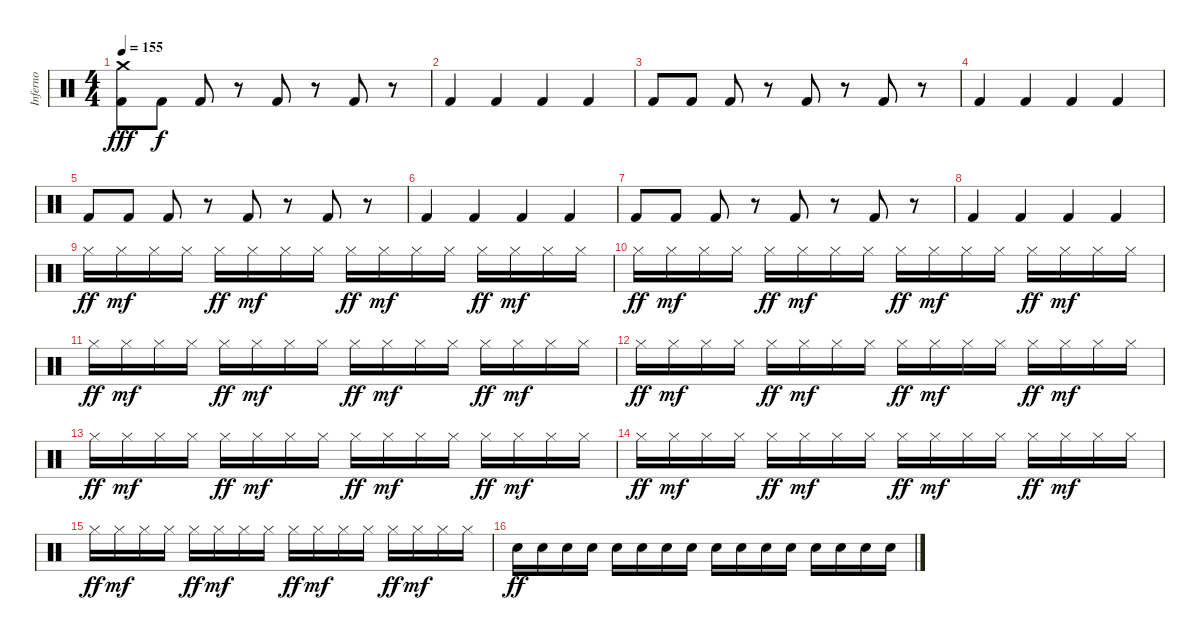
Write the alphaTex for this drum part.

\track ("Inferno" "Inferno") {instrument percussion}
\staff {score}
\articulation defaults
\ts (4 4)
\tempo 155
\clef neutral
\ks c
("Crash medium (hit)" "Kick (hit) 2").8{dy fff} "Kick (hit) 2".8{dy f} "Kick (hit) 2".8 r.8 "Kick (hit) 2".8 r.8 "Kick (hit) 2".8 r.8 |
"Kick (hit) 2".4 "Kick (hit) 2".4 "Kick (hit) 2".4 "Kick (hit) 2".4 |
"Kick (hit) 2".8 "Kick (hit) 2".8 "Kick (hit) 2".8 r.8 "Kick (hit) 2".8 r.8 "Kick (hit) 2".8 r.8 |
"Kick (hit) 2".4 "Kick (hit) 2".4 "Kick (hit) 2".4 "Kick (hit) 2".4 |
"Kick (hit) 2".8 "Kick (hit) 2".8 "Kick (hit) 2".8 r.8 "Kick (hit) 2".8 r.8 "Kick (hit) 2".8 r.8 |
"Kick (hit) 2".4 "Kick (hit) 2".4 "Kick (hit) 2".4 "Kick (hit) 2".4 |
"Kick (hit) 2".8 "Kick (hit) 2".8 "Kick (hit) 2".8 r.8 "Kick (hit) 2".8 r.8 "Kick (hit) 2".8 r.8 |
"Kick (hit) 2".4 "Kick (hit) 2".4 "Kick (hit) 2".4 "Kick (hit) 2".4 |
"Hi-Hat (closed)".16{dy ff} "Hi-Hat (closed)".16{dy mf} "Hi-Hat (closed)".16 "Hi-Hat (closed)".16 "Hi-Hat (closed)".16{dy ff} "Hi-Hat (closed)".16{dy mf} "Hi-Hat (closed)".16 "Hi-Hat (closed)".16 "Hi-Hat (closed)".16{dy ff} "Hi-Hat (closed)".16{dy mf} "Hi-Hat (closed)".16 "Hi-Hat (closed)".16 "Hi-Hat (closed)".16{dy ff} "Hi-Hat (closed)".16{dy mf} "Hi-Hat (closed)".16 "Hi-Hat (closed)".16 |
"Hi-Hat (closed)".16{dy ff} "Hi-Hat (closed)".16{dy mf} "Hi-Hat (closed)".16 "Hi-Hat (closed)".16 "Hi-Hat (closed)".16{dy ff} "Hi-Hat (closed)".16{dy mf} "Hi-Hat (closed)".16 "Hi-Hat (closed)".16 "Hi-Hat (closed)".16{dy ff} "Hi-Hat (closed)".16{dy mf} "Hi-Hat (closed)".16 "Hi-Hat (closed)".16 "Hi-Hat (closed)".16{dy ff} "Hi-Hat (closed)".16{dy mf} "Hi-Hat (closed)".16 "Hi-Hat (closed)".16 |
"Hi-Hat (closed)".16{dy ff} "Hi-Hat (closed)".16{dy mf} "Hi-Hat (closed)".16 "Hi-Hat (closed)".16 "Hi-Hat (closed)".16{dy ff} "Hi-Hat (closed)".16{dy mf} "Hi-Hat (closed)".16 "Hi-Hat (closed)".16 "Hi-Hat (closed)".16{dy ff} "Hi-Hat (closed)".16{dy mf} "Hi-Hat (closed)".16 "Hi-Hat (closed)".16 "Hi-Hat (closed)".16{dy ff} "Hi-Hat (closed)".16{dy mf} "Hi-Hat (closed)".16 "Hi-Hat (closed)".16 |
"Hi-Hat (closed)".16{dy ff} "Hi-Hat (closed)".16{dy mf} "Hi-Hat (closed)".16 "Hi-Hat (closed)".16 "Hi-Hat (closed)".16{dy ff} "Hi-Hat (closed)".16{dy mf} "Hi-Hat (closed)".16 "Hi-Hat (closed)".16 "Hi-Hat (closed)".16{dy ff} "Hi-Hat (closed)".16{dy mf} "Hi-Hat (closed)".16 "Hi-Hat (closed)".16 "Hi-Hat (closed)".16{dy ff} "Hi-Hat (closed)".16{dy mf} "Hi-Hat (closed)".16 "Hi-Hat (closed)".16 |
"Hi-Hat (closed)".16{dy ff} "Hi-Hat (closed)".16{dy mf} "Hi-Hat (closed)".16 "Hi-Hat (closed)".16 "Hi-Hat (closed)".16{dy ff} "Hi-Hat (closed)".16{dy mf} "Hi-Hat (closed)".16 "Hi-Hat (closed)".16 "Hi-Hat (closed)".16{dy ff} "Hi-Hat (closed)".16{dy mf} "Hi-Hat (closed)".16 "Hi-Hat (closed)".16 "Hi-Hat (closed)".16{dy ff} "Hi-Hat (closed)".16{dy mf} "Hi-Hat (closed)".16 "Hi-Hat (closed)".16 |
"Hi-Hat (closed)".16{dy ff} "Hi-Hat (closed)".16{dy mf} "Hi-Hat (closed)".16 "Hi-Hat (closed)".16 "Hi-Hat (closed)".16{dy ff} "Hi-Hat (closed)".16{dy mf} "Hi-Hat (closed)".16 "Hi-Hat (closed)".16 "Hi-Hat (closed)".16{dy ff} "Hi-Hat (closed)".16{dy mf} "Hi-Hat (closed)".16 "Hi-Hat (closed)".16 "Hi-Hat (closed)".16{dy ff} "Hi-Hat (closed)".16{dy mf} "Hi-Hat (closed)".16 "Hi-Hat (closed)".16 |
"Hi-Hat (closed)".16{dy ff} "Hi-Hat (closed)".16{dy mf} "Hi-Hat (closed)".16 "Hi-Hat (closed)".16 "Hi-Hat (closed)".16{dy ff} "Hi-Hat (closed)".16{dy mf} "Hi-Hat (closed)".16 "Hi-Hat (closed)".16 "Hi-Hat (closed)".16{dy ff} "Hi-Hat (closed)".16{dy mf} "Hi-Hat (closed)".16 "Hi-Hat (closed)".16 "Hi-Hat (closed)".16{dy ff} "Hi-Hat (closed)".16{dy mf} "Hi-Hat (closed)".16 "Hi-Hat (closed)".16 |
"Snare (hit) 2".16{dy ff} "Snare (hit) 2".16 "Snare (hit) 2".16 "Snare (hit) 2".16 "Snare (hit) 2".16 "Snare (hit) 2".16 "Snare (hit) 2".16 "Snare (hit) 2".16 "Snare (hit) 2".16 "Snare (hit) 2".16 "Snare (hit) 2".16 "Snare (hit) 2".16 "Snare (hit) 2".16 "Snare (hit) 2".16 "Snare (hit) 2".16 "Snare (hit) 2".16
